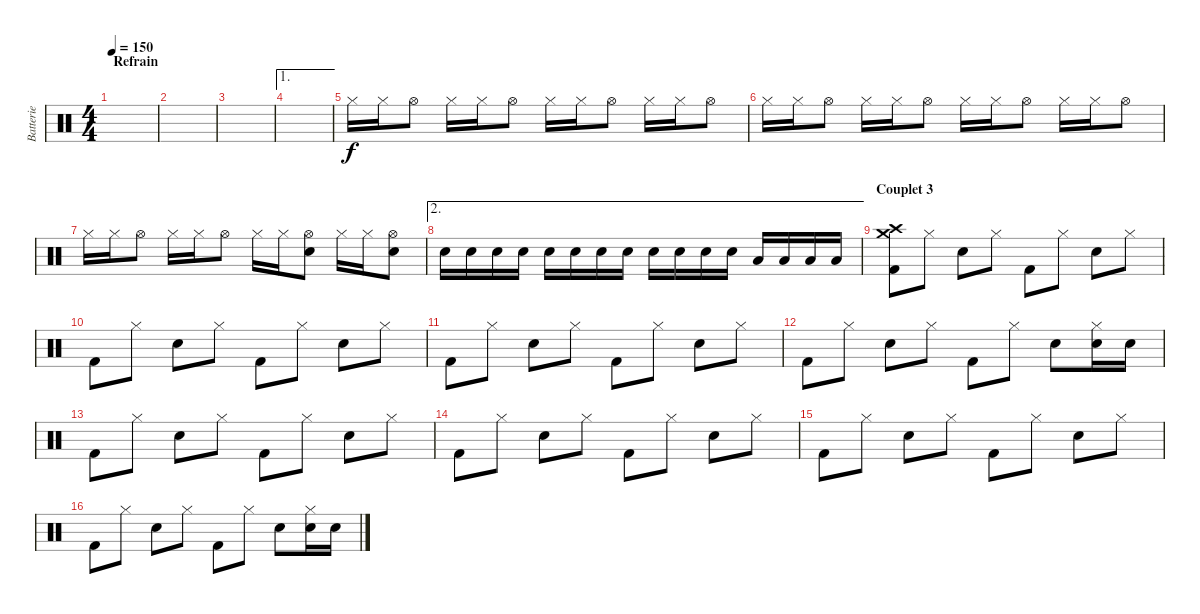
\track ("Batterie" "Batterie") {instrument percussion}
\staff {score}
\articulation defaults
\ts (4 4)
\section ("" "Refrain")
\tempo 150
\clef neutral
\ks c
|
|
|
\ae 1
|
"Hi-Hat (closed)".16{volume 16} "Hi-Hat (closed)".16 "Hi-Hat (open)".8 "Hi-Hat (closed)".16 "Hi-Hat (closed)".16 "Hi-Hat (open)".8 "Hi-Hat (closed)".16 "Hi-Hat (closed)".16 "Hi-Hat (open)".8 "Hi-Hat (closed)".16 "Hi-Hat (closed)".16 "Hi-Hat (open)".8 |
"Hi-Hat (closed)".16 "Hi-Hat (closed)".16 "Hi-Hat (open)".8 "Hi-Hat (closed)".16 "Hi-Hat (closed)".16 "Hi-Hat (open)".8 "Hi-Hat (closed)".16 "Hi-Hat (closed)".16 "Hi-Hat (open)".8 "Hi-Hat (closed)".16 "Hi-Hat (closed)".16 "Hi-Hat (open)".8 |
"Hi-Hat (closed)".16 "Hi-Hat (closed)".16 "Hi-Hat (open)".8 "Hi-Hat (closed)".16 "Hi-Hat (closed)".16 "Hi-Hat (open)".8 "Hi-Hat (closed)".16 "Hi-Hat (closed)".16 ("Hi-Hat (open)" "Electric Snare (hit)").8 "Hi-Hat (closed)".16 "Hi-Hat (closed)".16 ("Hi-Hat (open)" "Electric Snare (hit)").8 |
\ae 2 "Electric Snare (hit)".16 "Electric Snare (hit)".16 "Electric Snare (hit)".16 "Electric Snare (hit)".16 "Electric Snare (hit)".16 "Electric Snare (hit)".16 "Electric Snare (hit)".16 "Electric Snare (hit)".16 "Electric Snare (hit)".16 "Electric Snare (hit)".16 "Electric Snare (hit)".16 "Electric Snare (hit)".16 "Low Tom (hit)".16 "Low Tom (hit)".16 "Low Floor Tom (hit)".16 "Low Floor Tom (hit)".16
|
\section ("" "Couplet 3")
("Crash medium (hit)" "Crash high (hit)" "Kick (hit) 2").8 "Hi-Hat (closed)".8 "Electric Snare (hit)".8 "Hi-Hat (closed)".8 "Kick (hit) 2".8 "Hi-Hat (closed)".8 "Electric Snare (hit)".8 "Hi-Hat (closed)".8 |
"Kick (hit) 2".8 "Hi-Hat (closed)".8 "Electric Snare (hit)".8 "Hi-Hat (closed)".8 "Kick (hit) 2".8 "Hi-Hat (closed)".8 "Electric Snare (hit)".8 "Hi-Hat (closed)".8 |
"Kick (hit) 2".8 "Hi-Hat (closed)".8 "Electric Snare (hit)".8 "Hi-Hat (closed)".8 "Kick (hit) 2".8 "Hi-Hat (closed)".8 "Electric Snare (hit)".8 "Hi-Hat (closed)".8 |
"Kick (hit) 2".8 "Hi-Hat (closed)".8 "Electric Snare (hit)".8 "Hi-Hat (closed)".8 "Kick (hit) 2".8 "Hi-Hat (closed)".8 "Electric Snare (hit)".8 ("Hi-Hat (closed)" "Electric Snare (hit)").16 "Electric Snare (hit)".16 |
"Kick (hit) 2".8 "Hi-Hat (closed)".8 "Electric Snare (hit)".8 "Hi-Hat (closed)".8 "Kick (hit) 2".8 "Hi-Hat (closed)".8 "Electric Snare (hit)".8 "Hi-Hat (closed)".8 |
"Kick (hit) 2".8 "Hi-Hat (closed)".8 "Electric Snare (hit)".8 "Hi-Hat (closed)".8 "Kick (hit) 2".8 "Hi-Hat (closed)".8 "Electric Snare (hit)".8 "Hi-Hat (closed)".8 |
"Kick (hit) 2".8 "Hi-Hat (closed)".8 "Electric Snare (hit)".8 "Hi-Hat (closed)".8 "Kick (hit) 2".8 "Hi-Hat (closed)".8 "Electric Snare (hit)".8 "Hi-Hat (closed)".8 |
"Kick (hit) 2".8 "Hi-Hat (closed)".8 "Electric Snare (hit)".8 "Hi-Hat (closed)".8 "Kick (hit) 2".8 "Hi-Hat (closed)".8 "Electric Snare (hit)".8 ("Hi-Hat (closed)" "Electric Snare (hit)").16 "Electric Snare (hit)".16
